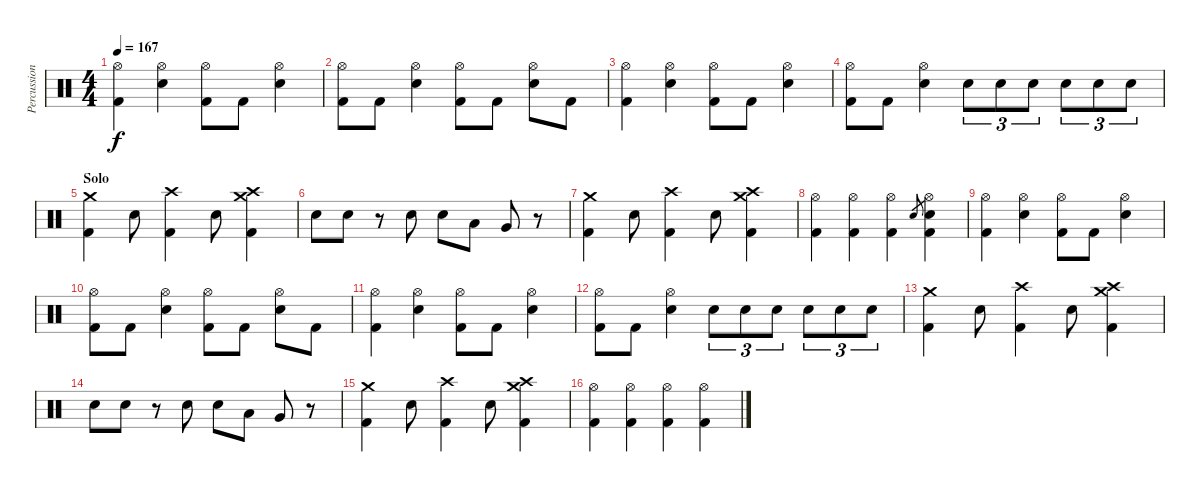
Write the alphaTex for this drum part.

\track ("Percussion" "Percussion") {instrument percussion}
\staff {score}
\articulation defaults
\ts (4 4)
\tempo 167
\clef neutral
\ks c
("Hi-Hat (open)" "Kick (hit) 2").4{dy f} ("Hi-Hat (open)" "Electric Snare (hit)").4 ("Hi-Hat (open)" "Kick (hit) 2").8 "Kick (hit) 2".8 ("Hi-Hat (open)" "Electric Snare (hit)").4 |
("Hi-Hat (open)" "Kick (hit) 2").8 "Kick (hit) 2".8 ("Hi-Hat (open)" "Electric Snare (hit)").4 ("Hi-Hat (open)" "Kick (hit) 2").8 "Kick (hit) 2".8 ("Hi-Hat (open)" "Electric Snare (hit)").8 "Kick (hit) 2".8 |
("Hi-Hat (open)" "Kick (hit) 2").4 ("Hi-Hat (open)" "Electric Snare (hit)").4 ("Hi-Hat (open)" "Kick (hit) 2").8 "Kick (hit) 2".8 ("Hi-Hat (open)" "Electric Snare (hit)").4 |
("Hi-Hat (open)" "Kick (hit) 2").8 "Kick (hit) 2".8 ("Hi-Hat (open)" "Electric Snare (hit)").4 "Electric Snare (hit)".8{tu (3 2)} "Electric Snare (hit)".8{tu (3 2)} "Electric Snare (hit)".8{tu (3 2)} "Electric Snare (hit)".8{tu (3 2)} "Electric Snare (hit)".8{tu (3 2)} "Electric Snare (hit)".8{tu (3 2)} |
\section ("" "Solo")
("Crash medium (hit)" "Kick (hit) 2").4 "Electric Snare (hit)".8 ("Crash high (hit)" "Kick (hit) 2").4 "Electric Snare (hit)".8 ("Crash medium (hit)" "Crash high (hit)" "Kick (hit) 2").4 |
"Electric Snare (hit)".8 "Electric Snare (hit)".8 r.8 "Electric Snare (hit)".8 "Electric Snare (hit)".8 "Low Tom (hit)".8 "Very Low Tom (hit)".8 r.8 |
("Crash medium (hit)" "Kick (hit) 2").4 "Electric Snare (hit)".8 ("Crash high (hit)" "Kick (hit) 2").4 "Electric Snare (hit)".8 ("Crash medium (hit)" "Crash high (hit)" "Kick (hit) 2").4 |
("Hi-Hat (open)" "Kick (hit) 2").4 ("Hi-Hat (open)" "Kick (hit) 2").4 ("Hi-Hat (open)" "Kick (hit) 2").4 "Electric Snare (hit)".8{gr} ("Hi-Hat (open)" "Electric Snare (hit)" "Kick (hit) 2").4 |
("Hi-Hat (open)" "Kick (hit) 2").4 ("Hi-Hat (open)" "Electric Snare (hit)").4 ("Hi-Hat (open)" "Kick (hit) 2").8 "Kick (hit) 2".8 ("Hi-Hat (open)" "Electric Snare (hit)").4 |
("Hi-Hat (open)" "Kick (hit) 2").8 "Kick (hit) 2".8 ("Hi-Hat (open)" "Electric Snare (hit)").4 ("Hi-Hat (open)" "Kick (hit) 2").8 "Kick (hit) 2".8 ("Hi-Hat (open)" "Electric Snare (hit)").8 "Kick (hit) 2".8 |
("Hi-Hat (open)" "Kick (hit) 2").4 ("Hi-Hat (open)" "Electric Snare (hit)").4 ("Hi-Hat (open)" "Kick (hit) 2").8 "Kick (hit) 2".8 ("Hi-Hat (open)" "Electric Snare (hit)").4 |
("Hi-Hat (open)" "Kick (hit) 2").8 "Kick (hit) 2".8 ("Hi-Hat (open)" "Electric Snare (hit)").4 "Electric Snare (hit)".8{tu (3 2)} "Electric Snare (hit)".8{tu (3 2)} "Electric Snare (hit)".8{tu (3 2)} "Electric Snare (hit)".8{tu (3 2)} "Electric Snare (hit)".8{tu (3 2)} "Electric Snare (hit)".8{tu (3 2)} |
("Crash medium (hit)" "Kick (hit) 2").4 "Electric Snare (hit)".8 ("Crash high (hit)" "Kick (hit) 2").4 "Electric Snare (hit)".8 ("Crash medium (hit)" "Crash high (hit)" "Kick (hit) 2").4 |
"Electric Snare (hit)".8 "Electric Snare (hit)".8 r.8 "Electric Snare (hit)".8 "Electric Snare (hit)".8 "Low Tom (hit)".8 "Very Low Tom (hit)".8 r.8 |
("Crash medium (hit)" "Kick (hit) 2").4 "Electric Snare (hit)".8 ("Crash high (hit)" "Kick (hit) 2").4 "Electric Snare (hit)".8 ("Crash medium (hit)" "Crash high (hit)" "Kick (hit) 2").4 |
("Hi-Hat (open)" "Kick (hit) 2").4 ("Hi-Hat (open)" "Kick (hit) 2").4 ("Hi-Hat (open)" "Kick (hit) 2").4 ("Hi-Hat (open)" "Kick (hit) 2").4
